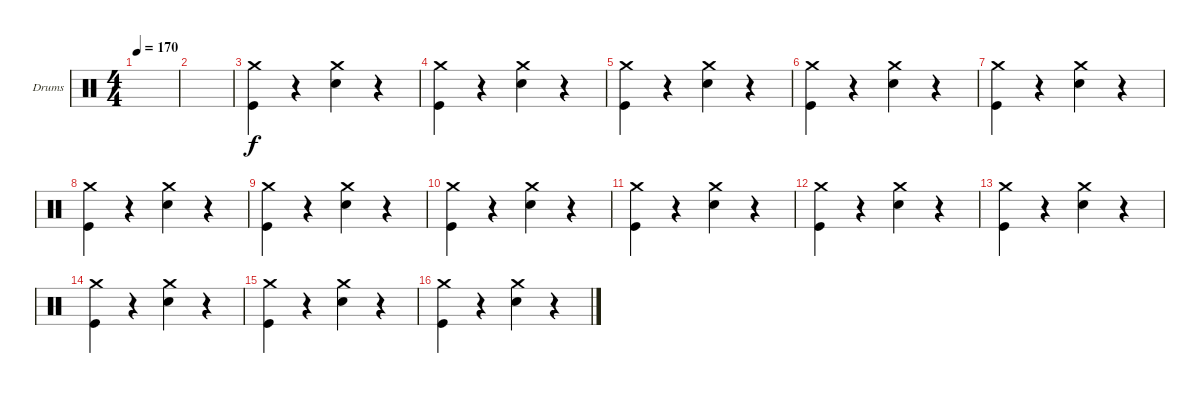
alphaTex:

\defaultSystemsLayout 4
\bracketExtendMode groupsimilarinstruments
\firstSystemTrackNameOrientation horizontal
\otherSystemsTrackNameOrientation horizontal
\track ("Drumkit" "Drums") {instrument percussion}
\staff {score}
\articulation defaults
\ts (4 4)
\tempo 170
\clef neutral
\scale
0.333333
\ks c
|
\scale
0.333333 |
\scale
0.333333 ("Crash medium (hit)" "Kick (hit)").4 r.4 ("Crash medium (hit)" "Snare (hit) 2").4 r.4 |
\scale
0.333333 ("Crash medium (hit)" "Kick (hit)").4 r.4 ("Crash medium (hit)" "Snare (hit) 2").4 r.4 |
\scale
0.333333 ("Crash medium (hit)" "Kick (hit)").4 r.4 ("Crash medium (hit)" "Snare (hit) 2").4 r.4 |
\scale
0.333333 ("Crash medium (hit)" "Kick (hit)").4 r.4 ("Crash medium (hit)" "Snare (hit) 2").4 r.4 |
\scale
0.333333 ("Crash medium (hit)" "Kick (hit)").4 r.4 ("Crash medium (hit)" "Snare (hit) 2").4 r.4 |
\scale
0.333333 ("Crash medium (hit)" "Kick (hit)").4 r.4 ("Crash medium (hit)" "Snare (hit) 2").4 r.4 |
\scale
0.333333 ("Crash medium (hit)" "Kick (hit)").4 r.4 ("Crash medium (hit)" "Snare (hit) 2").4 r.4 |
\scale
0.333333 ("Crash medium (hit)" "Kick (hit)").4 r.4 ("Crash medium (hit)" "Snare (hit) 2").4 r.4 |
\scale
0.333333 ("Crash medium (hit)" "Kick (hit)").4 r.4 ("Crash medium (hit)" "Snare (hit) 2").4 r.4 |
\scale
0.333333 ("Crash medium (hit)" "Kick (hit)").4 r.4 ("Crash medium (hit)" "Snare (hit) 2").4 r.4 |
\scale
0.333333 ("Crash medium (hit)" "Kick (hit)").4 r.4 ("Crash medium (hit)" "Snare (hit) 2").4 r.4 |
\scale
0.333333 ("Crash medium (hit)" "Kick (hit)").4 r.4 ("Crash medium (hit)" "Snare (hit) 2").4 r.4 |
\scale
0.333333 ("Crash medium (hit)" "Kick (hit)").4 r.4 ("Crash medium (hit)" "Snare (hit) 2").4 r.4 |
\scale
0.333333 ("Crash medium (hit)" "Kick (hit)").4 r.4 ("Crash medium (hit)" "Snare (hit) 2").4 r.4
